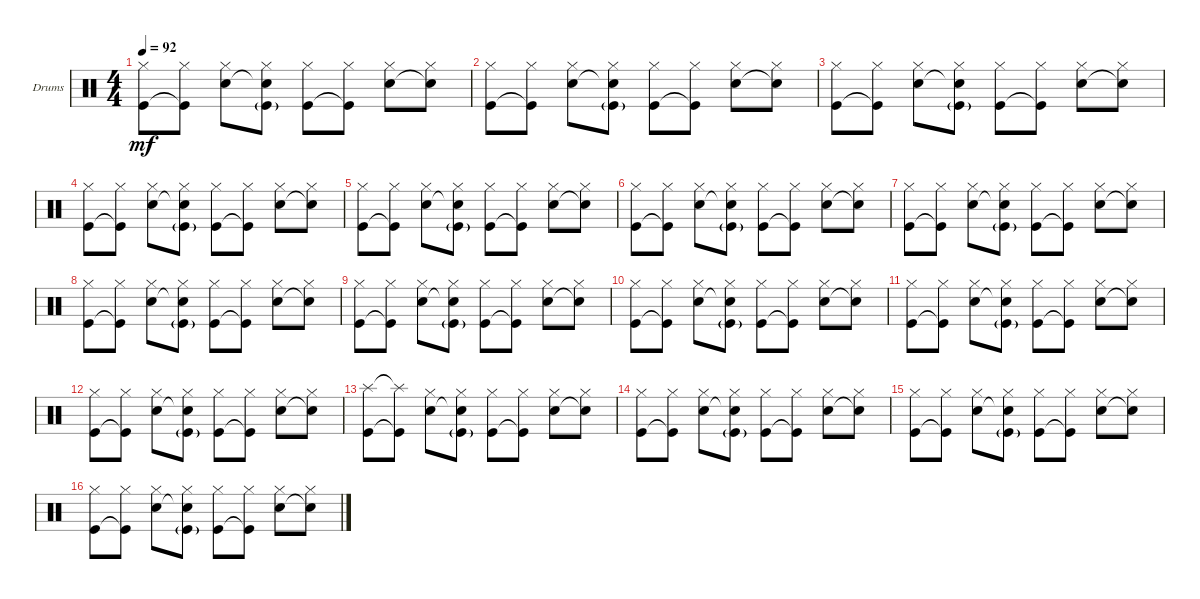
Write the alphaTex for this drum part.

\bracketExtendMode groupsimilarinstruments
\firstSystemTrackNameOrientation horizontal
\otherSystemsTrackNameOrientation horizontal
\track ("Drumkit" "Drums") {instrument percussion}
\staff {score}
\articulation defaults
\ts (4 4)
\tempo 92
\clef neutral
\ks c
("Hi-Hat (closed)" "Kick (hit)").8{dy mf} ("Hi-Hat (closed)" "Kick (hit)"{t}).8 ("Hi-Hat (closed)" "Snare (hit) 2").8 ("Hi-Hat (closed)" "Snare (hit) 2"{t} "Kick (hit)"{g}).8 ("Hi-Hat (closed)" "Kick (hit)").8 ("Hi-Hat (closed)" "Kick (hit)"{t}).8 ("Hi-Hat (closed)" "Snare (hit) 2").8 ("Hi-Hat (closed)" "Snare (hit) 2"{t}).8 |
("Hi-Hat (closed)" "Kick (hit)").8 ("Hi-Hat (closed)" "Kick (hit)"{t}).8 ("Hi-Hat (closed)" "Snare (hit) 2").8 ("Hi-Hat (closed)" "Snare (hit) 2"{t} "Kick (hit)"{g}).8 ("Hi-Hat (closed)" "Kick (hit)").8 ("Hi-Hat (closed)" "Kick (hit)"{t}).8 ("Hi-Hat (closed)" "Snare (hit) 2").8 ("Hi-Hat (closed)" "Snare (hit) 2"{t}).8 |
("Hi-Hat (closed)" "Kick (hit)").8 ("Hi-Hat (closed)" "Kick (hit)"{t}).8 ("Hi-Hat (closed)" "Snare (hit) 2").8 ("Hi-Hat (closed)" "Snare (hit) 2"{t} "Kick (hit)"{g}).8 ("Hi-Hat (closed)" "Kick (hit)").8 ("Hi-Hat (closed)" "Kick (hit)"{t}).8 ("Hi-Hat (closed)" "Snare (hit) 2").8 ("Hi-Hat (closed)" "Snare (hit) 2"{t}).8 |
("Hi-Hat (closed)" "Kick (hit)").8 ("Hi-Hat (closed)" "Kick (hit)"{t}).8 ("Hi-Hat (closed)" "Snare (hit) 2").8 ("Hi-Hat (closed)" "Snare (hit) 2"{t} "Kick (hit)"{g}).8 ("Hi-Hat (closed)" "Kick (hit)").8 ("Hi-Hat (closed)" "Kick (hit)"{t}).8 ("Hi-Hat (closed)" "Snare (hit) 2").8 ("Hi-Hat (closed)" "Snare (hit) 2"{t}).8 |
("Hi-Hat (closed)" "Kick (hit)").8 ("Hi-Hat (closed)" "Kick (hit)"{t}).8 ("Hi-Hat (closed)" "Snare (hit) 2").8 ("Hi-Hat (closed)" "Snare (hit) 2"{t} "Kick (hit)"{g}).8 ("Hi-Hat (closed)" "Kick (hit)").8 ("Hi-Hat (closed)" "Kick (hit)"{t}).8 ("Hi-Hat (closed)" "Snare (hit) 2").8 ("Hi-Hat (closed)" "Snare (hit) 2"{t}).8 |
("Hi-Hat (closed)" "Kick (hit)").8 ("Hi-Hat (closed)" "Kick (hit)"{t}).8 ("Hi-Hat (closed)" "Snare (hit) 2").8 ("Hi-Hat (closed)" "Snare (hit) 2"{t} "Kick (hit)"{g}).8 ("Hi-Hat (closed)" "Kick (hit)").8 ("Hi-Hat (closed)" "Kick (hit)"{t}).8 ("Hi-Hat (closed)" "Snare (hit) 2").8 ("Hi-Hat (closed)" "Snare (hit) 2"{t}).8 |
("Hi-Hat (closed)" "Kick (hit)").8 ("Hi-Hat (closed)" "Kick (hit)"{t}).8 ("Hi-Hat (closed)" "Snare (hit) 2").8 ("Hi-Hat (closed)" "Snare (hit) 2"{t} "Kick (hit)"{g}).8 ("Hi-Hat (closed)" "Kick (hit)").8 ("Hi-Hat (closed)" "Kick (hit)"{t}).8 ("Hi-Hat (closed)" "Snare (hit) 2").8 ("Hi-Hat (closed)" "Snare (hit) 2"{t}).8 |
("Hi-Hat (closed)" "Kick (hit)").8 ("Hi-Hat (closed)" "Kick (hit)"{t}).8 ("Hi-Hat (closed)" "Snare (hit) 2").8 ("Hi-Hat (closed)" "Snare (hit) 2"{t} "Kick (hit)"{g}).8 ("Hi-Hat (closed)" "Kick (hit)").8 ("Hi-Hat (closed)" "Kick (hit)"{t}).8 ("Hi-Hat (closed)" "Snare (hit) 2").8 ("Hi-Hat (closed)" "Snare (hit) 2"{t}).8 |
("Hi-Hat (closed)" "Kick (hit)").8 ("Hi-Hat (closed)" "Kick (hit)"{t}).8 ("Hi-Hat (closed)" "Snare (hit) 2").8 ("Hi-Hat (closed)" "Snare (hit) 2"{t} "Kick (hit)"{g}).8 ("Hi-Hat (closed)" "Kick (hit)").8 ("Hi-Hat (closed)" "Kick (hit)"{t}).8 ("Hi-Hat (closed)" "Snare (hit) 2").8 ("Hi-Hat (closed)" "Snare (hit) 2"{t}).8 |
("Hi-Hat (closed)" "Kick (hit)").8 ("Hi-Hat (closed)" "Kick (hit)"{t}).8 ("Hi-Hat (closed)" "Snare (hit) 2").8 ("Hi-Hat (closed)" "Snare (hit) 2"{t} "Kick (hit)"{g}).8 ("Hi-Hat (closed)" "Kick (hit)").8 ("Hi-Hat (closed)" "Kick (hit)"{t}).8 ("Hi-Hat (closed)" "Snare (hit) 2").8 ("Hi-Hat (closed)" "Snare (hit) 2"{t}).8 |
("Hi-Hat (closed)" "Kick (hit)").8 ("Hi-Hat (closed)" "Kick (hit)"{t}).8 ("Hi-Hat (closed)" "Snare (hit) 2").8 ("Hi-Hat (closed)" "Snare (hit) 2"{t} "Kick (hit)"{g}).8 ("Hi-Hat (closed)" "Kick (hit)").8 ("Hi-Hat (closed)" "Kick (hit)"{t}).8 ("Hi-Hat (closed)" "Snare (hit) 2").8 ("Hi-Hat (closed)" "Snare (hit) 2"{t}).8 |
("Hi-Hat (closed)" "Kick (hit)").8 ("Hi-Hat (closed)" "Kick (hit)"{t}).8 ("Hi-Hat (closed)" "Snare (hit) 2").8 ("Hi-Hat (closed)" "Snare (hit) 2"{t} "Kick (hit)"{g}).8 ("Hi-Hat (closed)" "Kick (hit)").8 ("Hi-Hat (closed)" "Kick (hit)"{t}).8 ("Hi-Hat (closed)" "Snare (hit) 2").8 ("Hi-Hat (closed)" "Snare (hit) 2"{t}).8 |
("Kick (hit)" "Splash (hit)").8 ("Kick (hit)"{t} "Splash (hit)"{t}).8 ("Hi-Hat (closed)" "Snare (hit) 2").8 ("Hi-Hat (closed)" "Snare (hit) 2"{t} "Kick (hit)"{g}).8 ("Hi-Hat (closed)" "Kick (hit)").8 ("Hi-Hat (closed)" "Kick (hit)"{t}).8 ("Hi-Hat (closed)" "Snare (hit) 2").8 ("Hi-Hat (closed)" "Snare (hit) 2"{t}).8 |
("Hi-Hat (closed)" "Kick (hit)").8 ("Hi-Hat (closed)" "Kick (hit)"{t}).8 ("Hi-Hat (closed)" "Snare (hit) 2").8 ("Hi-Hat (closed)" "Snare (hit) 2"{t} "Kick (hit)"{g}).8 ("Hi-Hat (closed)" "Kick (hit)").8 ("Hi-Hat (closed)" "Kick (hit)"{t}).8 ("Hi-Hat (closed)" "Snare (hit) 2").8 ("Hi-Hat (closed)" "Snare (hit) 2"{t}).8 |
("Hi-Hat (closed)" "Kick (hit)").8 ("Hi-Hat (closed)" "Kick (hit)"{t}).8 ("Hi-Hat (closed)" "Snare (hit) 2").8 ("Hi-Hat (closed)" "Snare (hit) 2"{t} "Kick (hit)"{g}).8 ("Hi-Hat (closed)" "Kick (hit)").8 ("Hi-Hat (closed)" "Kick (hit)"{t}).8 ("Hi-Hat (closed)" "Snare (hit) 2").8 ("Hi-Hat (closed)" "Snare (hit) 2"{t}).8 |
("Hi-Hat (closed)" "Kick (hit)").8 ("Hi-Hat (closed)" "Kick (hit)"{t}).8 ("Hi-Hat (closed)" "Snare (hit) 2").8 ("Hi-Hat (closed)" "Snare (hit) 2"{t} "Kick (hit)"{g}).8 ("Hi-Hat (closed)" "Kick (hit)").8 ("Hi-Hat (closed)" "Kick (hit)"{t}).8 ("Hi-Hat (closed)" "Snare (hit) 2").8 ("Hi-Hat (closed)" "Snare (hit) 2"{t}).8
